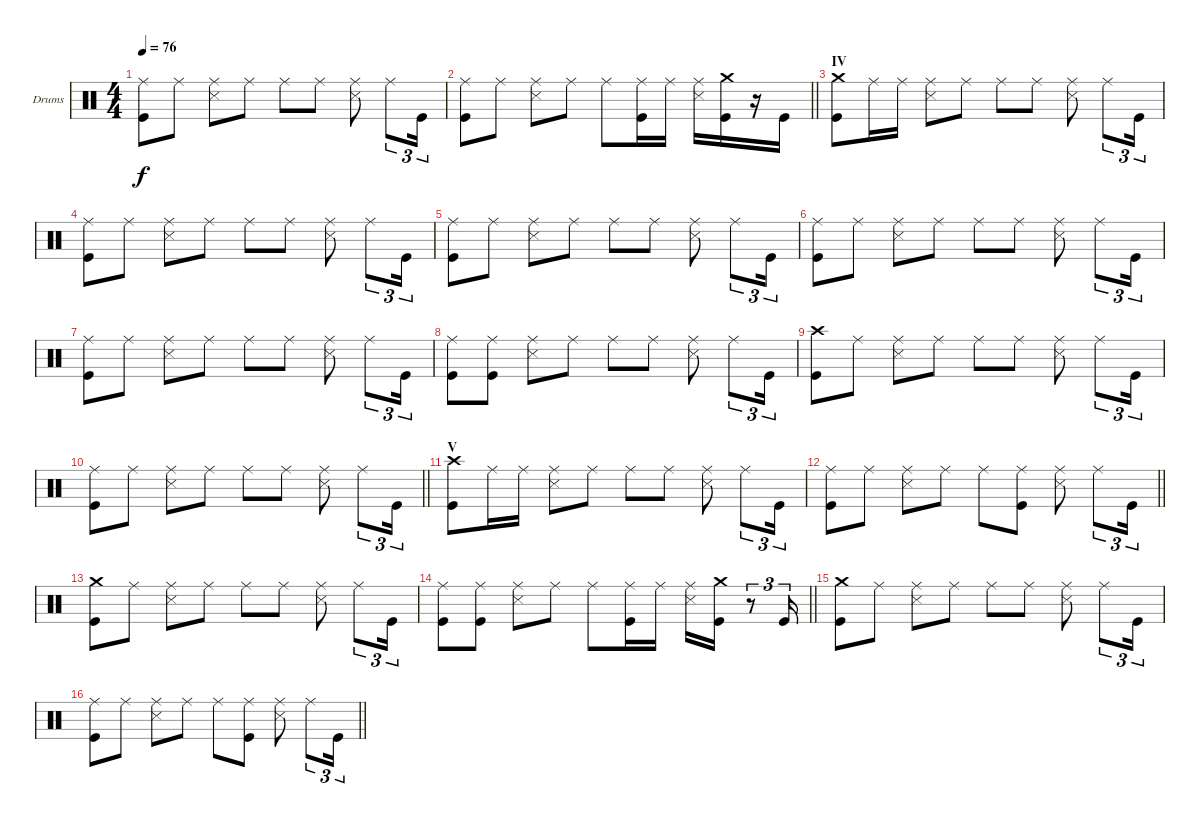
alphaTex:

\bracketExtendMode groupsimilarinstruments
\firstSystemTrackNameOrientation horizontal
\otherSystemsTrackNameOrientation horizontal
\track ("Drumkit" "Drums") {instrument percussion}
\staff {score}
\articulation defaults
\ts (4 4)
\tempo 76
\clef neutral
\ks c
("Ride (middle)" "Kick (hit)").8{dy f} "Ride (middle)".8 ("Ride (middle)" "Snare (side stick) 3").8 "Ride (middle)".8 "Ride (middle)".8 "Ride (middle)".8 ("Ride (middle)" "Snare (side stick) 3").8 "Ride (middle)".8{tu (3 2)} "Kick (hit)".16{tu (3 2)} |
\barLineRight lightlight
("Ride (middle)" "Kick (hit)").8 "Ride (middle)".8 ("Ride (middle)" "Snare (side stick) 3").8 "Ride (middle)".8 "Ride (middle)".8 ("Ride (middle)" "Kick (hit)").16 "Ride (middle)".16 ("Ride (middle)" "Snare (side stick) 3").16 ("Kick (hit)" "Crash medium (hit)").16 r.16 "Kick (hit)".16 |
\section ("" "IV")
("Crash medium (hit)" "Kick (hit)").8 "Ride (middle)".16 "Ride (middle)".16 ("Ride (middle)" "Snare (side stick) 3").8 "Ride (middle)".8 "Ride (middle)".8 "Ride (middle)".8 ("Ride (middle)" "Snare (side stick) 3").8 "Ride (middle)".8{tu (3 2)} "Kick (hit)".16{tu (3 2)} |
("Ride (middle)" "Kick (hit)").8 "Ride (middle)".8 ("Ride (middle)" "Snare (side stick) 3").8 "Ride (middle)".8 "Ride (middle)".8 "Ride (middle)".8 ("Ride (middle)" "Snare (side stick) 3").8 "Ride (middle)".8{tu (3 2)} "Kick (hit)".16{tu (3 2)} |
("Ride (middle)" "Kick (hit)").8 "Ride (middle)".8 ("Ride (middle)" "Snare (side stick) 3").8 "Ride (middle)".8 "Ride (middle)".8 "Ride (middle)".8 ("Ride (middle)" "Snare (side stick) 3").8 "Ride (middle)".8{tu (3 2)} "Kick (hit)".16{tu (3 2)} |
("Ride (middle)" "Kick (hit)").8 "Ride (middle)".8 ("Ride (middle)" "Snare (side stick) 3").8 "Ride (middle)".8 "Ride (middle)".8 "Ride (middle)".8 ("Ride (middle)" "Snare (side stick) 3").8 "Ride (middle)".8{tu (3 2)} "Kick (hit)".16{tu (3 2)} |
("Ride (middle)" "Kick (hit)").8 "Ride (middle)".8 ("Ride (middle)" "Snare (side stick) 3").8 "Ride (middle)".8 "Ride (middle)".8 "Ride (middle)".8 ("Ride (middle)" "Snare (side stick) 3").8 "Ride (middle)".8{tu (3 2)} "Kick (hit)".16{tu (3 2)} |
("Ride (middle)" "Kick (hit)").8 ("Ride (middle)" "Kick (hit)").8 ("Ride (middle)" "Snare (side stick) 3").8 "Ride (middle)".8 "Ride (middle)".8 "Ride (middle)".8 ("Ride (middle)" "Snare (side stick) 3").8 "Ride (middle)".8{tu (3 2)} "Kick (hit)".16{tu (3 2)} |
("Crash high (hit)" "Kick (hit)").8 "Ride (middle)".8 ("Ride (middle)" "Snare (side stick) 3").8 "Ride (middle)".8 "Ride (middle)".8 "Ride (middle)".8 ("Ride (middle)" "Snare (side stick) 3").8 "Ride (middle)".8{tu (3 2)} "Kick (hit)".16{tu (3 2)} |
\barLineRight lightlight
("Ride (middle)" "Kick (hit)").8 "Ride (middle)".8 ("Ride (middle)" "Snare (side stick) 3").8 "Ride (middle)".8 "Ride (middle)".8 "Ride (middle)".8 ("Ride (middle)" "Snare (side stick) 3").8 "Ride (middle)".8{tu (3 2)} "Kick (hit)".16{tu (3 2)} |
\section ("" "V")
("Crash high (hit)" "Kick (hit)").8 "Ride (middle)".16 "Ride (middle)".16 ("Ride (middle)" "Snare (side stick) 3").8 "Ride (middle)".8 "Ride (middle)".8 "Ride (middle)".8 ("Ride (middle)" "Snare (side stick) 3").8 "Ride (middle)".8{tu (3 2)} "Kick (hit)".16{tu (3 2)} |
\barLineRight lightlight
("Ride (middle)" "Kick (hit)").8 "Ride (middle)".8 ("Ride (middle)" "Snare (side stick) 3").8 "Ride (middle)".8 "Ride (middle)".8 ("Ride (middle)" "Kick (hit)").8 ("Ride (middle)" "Snare (side stick) 3").8 "Ride (middle)".8{tu (3 2)} "Kick (hit)".16{tu (3 2)} |
("Crash medium (hit)" "Kick (hit)").8 "Ride (middle)".8 ("Ride (middle)" "Snare (side stick) 3").8 "Ride (middle)".8 "Ride (middle)".8 "Ride (middle)".8 ("Ride (middle)" "Snare (side stick) 3").8 "Ride (middle)".8{tu (3 2)} "Kick (hit)".16{tu (3 2)} |
\barLineRight lightlight
("Ride (middle)" "Kick (hit)").8 ("Ride (middle)" "Kick (hit)").8 ("Ride (middle)" "Snare (side stick) 3").8 "Ride (middle)".8 "Ride (middle)".8 ("Ride (middle)" "Kick (hit)").16 "Ride (middle)".16 ("Ride (middle)" "Snare (side stick) 3").16 ("Crash medium (hit)" "Kick (hit)").16 r.8{tu (3 2)} "Kick (hit)".16{tu (3 2)} |
("Crash medium (hit)" "Kick (hit)").8 "Ride (middle)".8 ("Ride (middle)" "Snare (side stick) 3").8 "Ride (middle)".8 "Ride (middle)".8 "Ride (middle)".8 ("Ride (middle)" "Snare (side stick) 3").8 "Ride (middle)".8{tu (3 2)} "Kick (hit)".16{tu (3 2)} |
\barLineRight lightlight
("Ride (middle)" "Kick (hit)").8 "Ride (middle)".8 ("Ride (middle)" "Snare (side stick) 3").8 "Ride (middle)".8 "Ride (middle)".8 ("Ride (middle)" "Kick (hit)").8 ("Ride (middle)" "Snare (side stick) 3").8 "Ride (middle)".8{tu (3 2)} "Kick (hit)".16{tu (3 2)}
